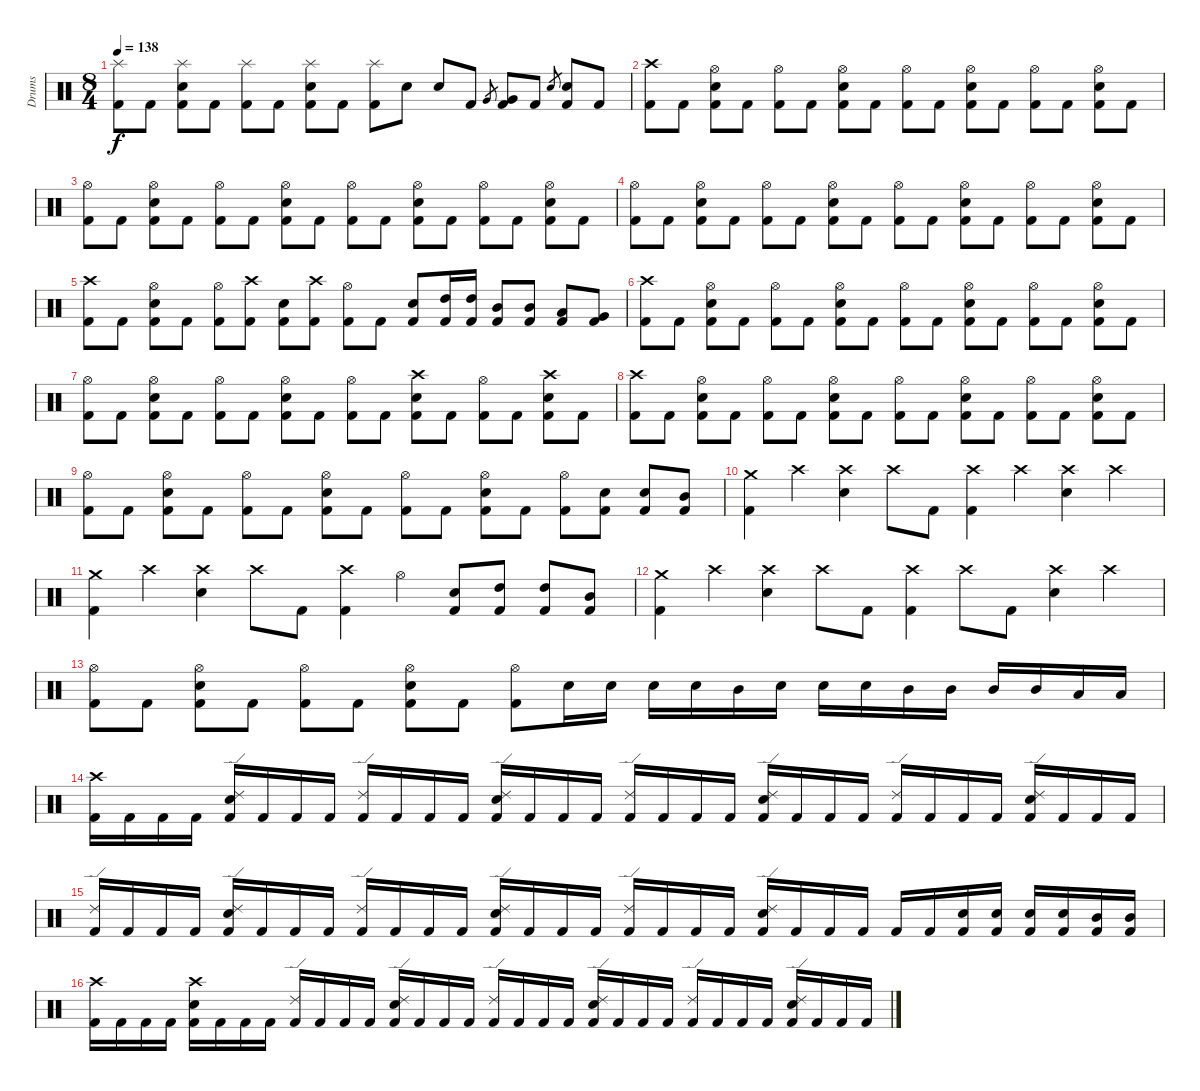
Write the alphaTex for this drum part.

\track ("Drums" "Drums") {instrument percussion}
\staff {score}
\articulation defaults
\ts (8 4)
\tempo 138
\clef neutral
\ks c
("Splash (hit)" "Kick (hit) 2").8{dy f} "Kick (hit) 2".8 ("Splash (hit)" "Snare (hit) 2" "Kick (hit) 2").8 "Kick (hit) 2".8 ("Splash (hit)" "Kick (hit) 2").8 "Kick (hit) 2".8 ("Splash (hit)" "Snare (hit) 2" "Kick (hit) 2").8 "Kick (hit) 2".8 ("Splash (hit)" "Kick (hit) 2").8 "Snare (hit) 2".8 "Snare (hit) 2".8 "Kick (hit) 2".8 "Very Low Tom (hit)".8{gr} ("Very Low Tom (hit)" "Kick (hit) 2").8 "Kick (hit) 2".8 "Snare (hit) 2".8{gr} ("Snare (hit) 2" "Kick (hit) 2").8 "Kick (hit) 2".8 |
("Crash high (hit)" "Kick (hit) 2").8 "Kick (hit) 2".8 ("Hi-Hat (open)" "Snare (hit) 2" "Kick (hit) 2").8 "Kick (hit) 2".8 ("Hi-Hat (open)" "Kick (hit) 2").8 "Kick (hit) 2".8 ("Hi-Hat (open)" "Snare (hit) 2" "Kick (hit) 2").8 "Kick (hit) 2".8 ("Hi-Hat (open)" "Kick (hit) 2").8 "Kick (hit) 2".8 ("Hi-Hat (open)" "Snare (hit) 2" "Kick (hit) 2").8 "Kick (hit) 2".8 ("Hi-Hat (open)" "Kick (hit) 2").8 "Kick (hit) 2".8 ("Hi-Hat (open)" "Snare (hit) 2" "Kick (hit) 2").8 "Kick (hit) 2".8 |
("Hi-Hat (open)" "Kick (hit) 2").8 "Kick (hit) 2".8 ("Hi-Hat (open)" "Snare (hit) 2" "Kick (hit) 2").8 "Kick (hit) 2".8 ("Hi-Hat (open)" "Kick (hit) 2").8 "Kick (hit) 2".8 ("Hi-Hat (open)" "Snare (hit) 2" "Kick (hit) 2").8 "Kick (hit) 2".8 ("Hi-Hat (open)" "Kick (hit) 2").8 "Kick (hit) 2".8 ("Hi-Hat (open)" "Snare (hit) 2" "Kick (hit) 2").8 "Kick (hit) 2".8 ("Hi-Hat (open)" "Kick (hit) 2").8 "Kick (hit) 2".8 ("Hi-Hat (open)" "Snare (hit) 2" "Kick (hit) 2").8 "Kick (hit) 2".8 |
("Hi-Hat (open)" "Kick (hit) 2").8 "Kick (hit) 2".8 ("Hi-Hat (open)" "Snare (hit) 2" "Kick (hit) 2").8 "Kick (hit) 2".8 ("Hi-Hat (open)" "Kick (hit) 2").8 "Kick (hit) 2".8 ("Hi-Hat (open)" "Snare (hit) 2" "Kick (hit) 2").8 "Kick (hit) 2".8 ("Hi-Hat (open)" "Kick (hit) 2").8 "Kick (hit) 2".8 ("Hi-Hat (open)" "Snare (hit) 2" "Kick (hit) 2").8 "Kick (hit) 2".8 ("Hi-Hat (open)" "Kick (hit) 2").8 "Kick (hit) 2".8 ("Hi-Hat (open)" "Snare (hit) 2" "Kick (hit) 2").8 "Kick (hit) 2".8 |
("Crash high (hit)" "Kick (hit) 2").8 "Kick (hit) 2".8 ("Hi-Hat (open)" "Snare (hit) 2" "Kick (hit) 2").8 "Kick (hit) 2".8 ("Hi-Hat (open)" "Kick (hit) 2").8 ("Crash high (hit)" "Kick (hit) 2").8 ("Snare (hit) 2" "Kick (hit) 2").8 ("Crash high (hit)" "Kick (hit) 2").8 ("Hi-Hat (open)" "Kick (hit) 2").8 "Kick (hit) 2".8 ("Snare (hit) 2" "Kick (hit) 2").8 ("High Tom (hit)" "Kick (hit) 2").16 ("High Tom (hit)" "Kick (hit) 2").16 ("Mid Tom (hit)" "Kick (hit) 2").8 ("Mid Tom (hit)" "Kick (hit) 2").8 ("Low Tom (hit)" "Kick (hit) 2").8 ("Very Low Tom (hit)" "Kick (hit) 2").8 |
("Crash high (hit)" "Kick (hit) 2").8 "Kick (hit) 2".8 ("Hi-Hat (open)" "Snare (hit) 2" "Kick (hit) 2").8 "Kick (hit) 2".8 ("Hi-Hat (open)" "Kick (hit) 2").8 "Kick (hit) 2".8 ("Hi-Hat (open)" "Snare (hit) 2" "Kick (hit) 2").8 "Kick (hit) 2".8 ("Hi-Hat (open)" "Kick (hit) 2").8 "Kick (hit) 2".8 ("Hi-Hat (open)" "Snare (hit) 2" "Kick (hit) 2").8 "Kick (hit) 2".8 ("Hi-Hat (open)" "Kick (hit) 2").8 "Kick (hit) 2".8 ("Hi-Hat (open)" "Snare (hit) 2" "Kick (hit) 2").8 "Kick (hit) 2".8 |
("Hi-Hat (open)" "Kick (hit) 2").8 "Kick (hit) 2".8 ("Hi-Hat (open)" "Snare (hit) 2" "Kick (hit) 2").8 "Kick (hit) 2".8 ("Hi-Hat (open)" "Kick (hit) 2").8 "Kick (hit) 2".8 ("Hi-Hat (open)" "Snare (hit) 2" "Kick (hit) 2").8 "Kick (hit) 2".8 ("Hi-Hat (open)" "Kick (hit) 2").8 "Kick (hit) 2".8 ("Crash high (hit)" "Snare (hit) 2" "Kick (hit) 2").8 "Kick (hit) 2".8 ("Hi-Hat (open)" "Kick (hit) 2").8 "Kick (hit) 2".8 ("Crash high (hit)" "Snare (hit) 2" "Kick (hit) 2").8 "Kick (hit) 2".8 |
("Crash high (hit)" "Kick (hit) 2").8 "Kick (hit) 2".8 ("Hi-Hat (open)" "Snare (hit) 2" "Kick (hit) 2").8 "Kick (hit) 2".8 ("Hi-Hat (open)" "Kick (hit) 2").8 "Kick (hit) 2".8 ("Hi-Hat (open)" "Snare (hit) 2" "Kick (hit) 2").8 "Kick (hit) 2".8 ("Hi-Hat (open)" "Kick (hit) 2").8 "Kick (hit) 2".8 ("Hi-Hat (open)" "Snare (hit) 2" "Kick (hit) 2").8 "Kick (hit) 2".8 ("Hi-Hat (open)" "Kick (hit) 2").8 "Kick (hit) 2".8 ("Hi-Hat (open)" "Snare (hit) 2" "Kick (hit) 2").8 "Kick (hit) 2".8 |
("Hi-Hat (open)" "Kick (hit) 2").8 "Kick (hit) 2".8 ("Hi-Hat (open)" "Snare (hit) 2" "Kick (hit) 2").8 "Kick (hit) 2".8 ("Hi-Hat (open)" "Kick (hit) 2").8 "Kick (hit) 2".8 ("Hi-Hat (open)" "Snare (hit) 2" "Kick (hit) 2").8 "Kick (hit) 2".8 ("Hi-Hat (open)" "Kick (hit) 2").8 "Kick (hit) 2".8 ("Hi-Hat (open)" "Snare (hit) 2" "Kick (hit) 2").8 "Kick (hit) 2".8 ("Hi-Hat (open)" "Kick (hit) 2").8 ("Snare (hit) 2" "Kick (hit) 2").8 ("Snare (hit) 2" "Kick (hit) 2").8 ("Mid Tom (hit)" "Kick (hit) 2").8 |
("Crash medium (hit)" "Kick (hit) 2").4 "Crash high (hit)".4 ("Crash high (hit)" "Snare (hit) 2").4 "Crash high (hit)".8 "Kick (hit) 2".8 ("Crash high (hit)" "Kick (hit) 2").4 "Crash high (hit)".4 ("Crash high (hit)" "Snare (hit) 2").4 "Crash high (hit)".4 |
("Crash medium (hit)" "Kick (hit) 2").4 "Crash high (hit)".4 ("Crash high (hit)" "Snare (hit) 2").4 "Crash high (hit)".8 "Kick (hit) 2".8 ("Crash high (hit)" "Kick (hit) 2").4 "Hi-Hat (open)".4 ("Snare (hit) 2" "Kick (hit) 2").8 ("High Tom (hit)" "Kick (hit) 2").8 ("High Tom (hit)" "Kick (hit) 2").8 ("Mid Tom (hit)" "Kick (hit) 2").8 |
("Crash medium (hit)" "Kick (hit) 2").4 "Crash high (hit)".4 ("Crash high (hit)" "Snare (hit) 2").4 "Crash high (hit)".8 "Kick (hit) 2".8 ("Crash high (hit)" "Kick (hit) 2").4 "Crash high (hit)".8 "Kick (hit) 2".8 ("Crash high (hit)" "Snare (hit) 2").4 "Crash high (hit)".4 |
("Hi-Hat (open)" "Kick (hit) 2").8 "Kick (hit) 2".8 ("Hi-Hat (open)" "Snare (hit) 2" "Kick (hit) 2").8 "Kick (hit) 2".8 ("Hi-Hat (open)" "Kick (hit) 2").8 "Kick (hit) 2".8 ("Hi-Hat (open)" "Snare (hit) 2" "Kick (hit) 2").8 "Kick (hit) 2".8 ("Hi-Hat (open)" "Kick (hit) 2").8 "Snare (hit) 2".16 "Snare (hit) 2".16 "Snare (hit) 2".16 "Snare (hit) 2".16 "Mid Tom (hit)".16 "Snare (hit) 2".16 "Snare (hit) 2".16 "Snare (hit) 2".16 "Mid Tom (hit)".16 "Mid Tom (hit)".16 "Mid Tom (hit)".16 "Mid Tom (hit)".16 "Low Tom (hit)".16 "Low Tom (hit)".16 |
("Crash high (hit)" "Kick (hit) 2").16 "Kick (hit) 2".16 "Kick (hit) 2".16 "Kick (hit) 2".16 ("Ride (edge) 2" "Snare (hit) 2" "Kick (hit) 2").16 "Kick (hit) 2".16 "Kick (hit) 2".16 "Kick (hit) 2".16 ("Ride (edge) 2" "Kick (hit) 2").16 "Kick (hit) 2".16 "Kick (hit) 2".16 "Kick (hit) 2".16 ("Ride (edge) 2" "Snare (hit) 2" "Kick (hit) 2").16 "Kick (hit) 2".16 "Kick (hit) 2".16 "Kick (hit) 2".16 ("Ride (edge) 2" "Kick (hit) 2").16 "Kick (hit) 2".16 "Kick (hit) 2".16 "Kick (hit) 2".16 ("Ride (edge) 2" "Snare (hit) 2" "Kick (hit) 2").16 "Kick (hit) 2".16 "Kick (hit) 2".16 "Kick (hit) 2".16 ("Ride (edge) 2" "Kick (hit) 2").16 "Kick (hit) 2".16 "Kick (hit) 2".16 "Kick (hit) 2".16 ("Ride (edge) 2" "Snare (hit) 2" "Kick (hit) 2").16 "Kick (hit) 2".16 "Kick (hit) 2".16 "Kick (hit) 2".16 |
("Ride (edge) 2" "Kick (hit) 2").16 "Kick (hit) 2".16 "Kick (hit) 2".16 "Kick (hit) 2".16 ("Ride (edge) 2" "Snare (hit) 2" "Kick (hit) 2").16 "Kick (hit) 2".16 "Kick (hit) 2".16 "Kick (hit) 2".16 ("Ride (edge) 2" "Kick (hit) 2").16 "Kick (hit) 2".16 "Kick (hit) 2".16 "Kick (hit) 2".16 ("Ride (edge) 2" "Snare (hit) 2" "Kick (hit) 2").16 "Kick (hit) 2".16 "Kick (hit) 2".16 "Kick (hit) 2".16 ("Ride (edge) 2" "Kick (hit) 2").16 "Kick (hit) 2".16 "Kick (hit) 2".16 "Kick (hit) 2".16 ("Ride (edge) 2" "Snare (hit) 2" "Kick (hit) 2").16 "Kick (hit) 2".16 "Kick (hit) 2".16 "Kick (hit) 2".16 "Kick (hit) 2".16 "Kick (hit) 2".16 ("Snare (hit) 2" "Kick (hit) 2").16 ("Snare (hit) 2" "Kick (hit) 2").16 ("Snare (hit) 2" "Kick (hit) 2").16 ("Snare (hit) 2" "Kick (hit) 2").16 ("Mid Tom (hit)" "Kick (hit) 2").16 ("Mid Tom (hit)" "Kick (hit) 2").16 |
("Crash high (hit)" "Kick (hit) 2").16 "Kick (hit) 2".16 "Kick (hit) 2".16 "Kick (hit) 2".16 ("Crash high (hit)" "Snare (hit) 2" "Kick (hit) 2").16 "Kick (hit) 2".16 "Kick (hit) 2".16 "Kick (hit) 2".16 ("Ride (edge) 2" "Kick (hit) 2").16 "Kick (hit) 2".16 "Kick (hit) 2".16 "Kick (hit) 2".16 ("Ride (edge) 2" "Snare (hit) 2" "Kick (hit) 2").16 "Kick (hit) 2".16 "Kick (hit) 2".16 "Kick (hit) 2".16 ("Ride (edge) 2" "Kick (hit) 2").16 "Kick (hit) 2".16 "Kick (hit) 2".16 "Kick (hit) 2".16 ("Ride (edge) 2" "Snare (hit) 2" "Kick (hit) 2").16 "Kick (hit) 2".16 "Kick (hit) 2".16 "Kick (hit) 2".16 ("Ride (edge) 2" "Kick (hit) 2").16 "Kick (hit) 2".16 "Kick (hit) 2".16 "Kick (hit) 2".16 ("Ride (edge) 2" "Snare (hit) 2" "Kick (hit) 2").16 "Kick (hit) 2".16 "Kick (hit) 2".16 "Kick (hit) 2".16
